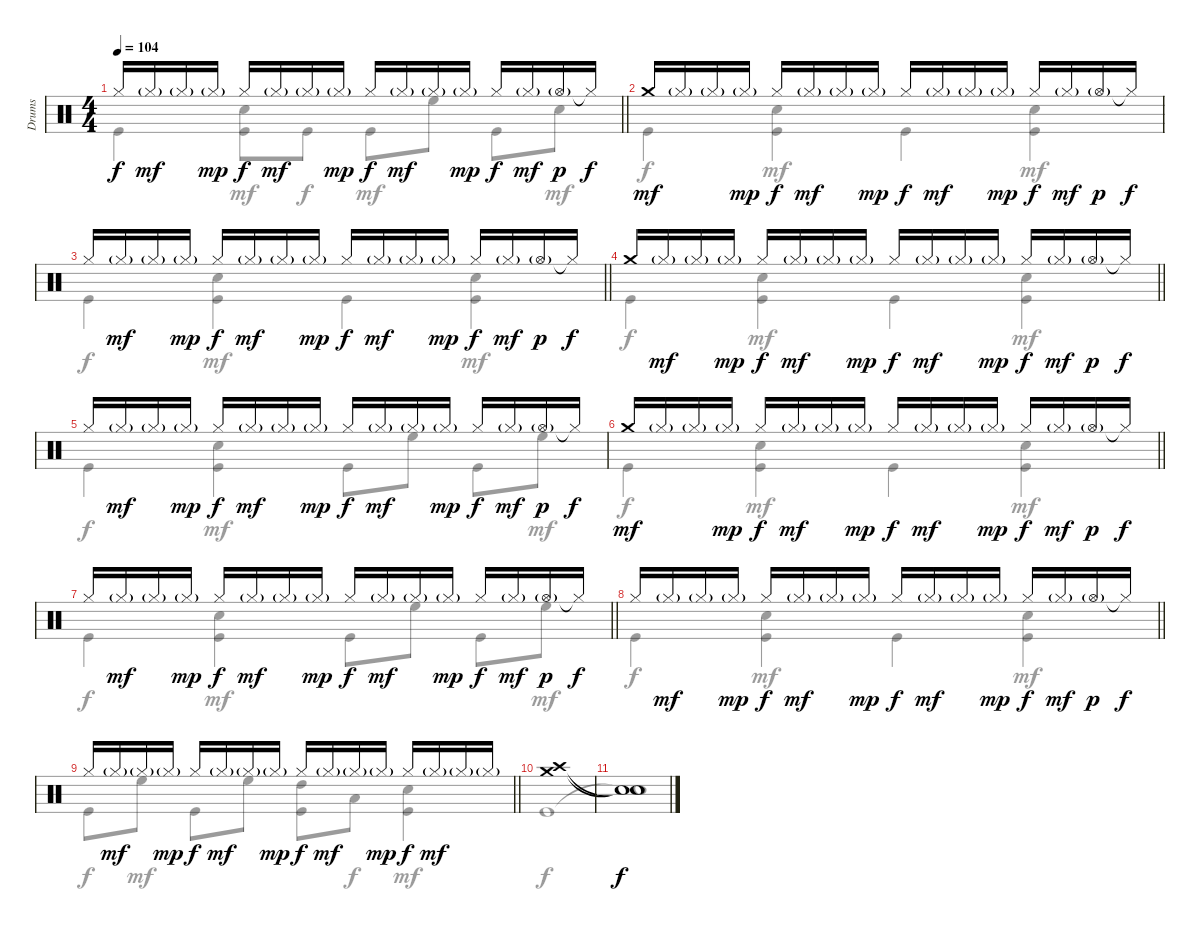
\track ("Drums" "Drums") {instrument percussion}
\staff {score}
\articulation defaults
\voice
\ts (4 4)
\tempo 104
\clef neutral
\barLineRight lightlight
\ks c "Hi-Hat (closed)".16{dy f} "Hi-Hat (closed)"{g}.16{dy mf} "Hi-Hat (closed)"{g}.16 "Hi-Hat (closed)"{g}.16{dy mp} "Hi-Hat (closed)".16{dy f} "Hi-Hat (closed)"{g}.16{dy mf} "Hi-Hat (closed)"{g}.16 "Hi-Hat (closed)"{g}.16{dy mp} "Hi-Hat (closed)".16{dy f} "Hi-Hat (closed)"{g}.16{dy mf} "Hi-Hat (closed)"{g}.16 "Hi-Hat (closed)"{g}.16{dy mp} "Hi-Hat (closed)".16{dy f} "Hi-Hat (closed)"{g}.16{dy mf} "Hi-Hat (open)"{g}.16{dy p} "Hi-Hat (closed)"{t}.16{dy f}
|
\section ("" "")
"Crash medium (hit)".16{dy mf} "Hi-Hat (closed)"{g}.16 "Hi-Hat (closed)"{g}.16 "Hi-Hat (closed)"{g}.16{dy mp} "Hi-Hat (closed)".16{dy f} "Hi-Hat (closed)"{g}.16{dy mf} "Hi-Hat (closed)"{g}.16 "Hi-Hat (closed)"{g}.16{dy mp} "Hi-Hat (closed)".16{dy f} "Hi-Hat (closed)"{g}.16{dy mf} "Hi-Hat (closed)"{g}.16 "Hi-Hat (closed)"{g}.16{dy mp} "Hi-Hat (closed)".16{dy f} "Hi-Hat (closed)"{g}.16{dy mf} "Hi-Hat (open)"{g}.16{dy p} "Hi-Hat (closed)"{t}.16{dy f} |
\barLineRight lightlight "Hi-Hat (closed)".16 "Hi-Hat (closed)"{g}.16{dy mf} "Hi-Hat (closed)"{g}.16 "Hi-Hat (closed)"{g}.16{dy mp} "Hi-Hat (closed)".16{dy f} "Hi-Hat (closed)"{g}.16{dy mf} "Hi-Hat (closed)"{g}.16 "Hi-Hat (closed)"{g}.16{dy mp} "Hi-Hat (closed)".16{dy f} "Hi-Hat (closed)"{g}.16{dy mf} "Hi-Hat (closed)"{g}.16 "Hi-Hat (closed)"{g}.16{dy mp} "Hi-Hat (closed)".16{dy f} "Hi-Hat (closed)"{g}.16{dy mf} "Hi-Hat (open)"{g}.16{dy p} "Hi-Hat (closed)"{t}.16{dy f}
|
\barLineRight lightlight "Crash medium (hit)".16 "Hi-Hat (closed)"{g}.16{dy mf} "Hi-Hat (closed)"{g}.16 "Hi-Hat (closed)"{g}.16{dy mp} "Hi-Hat (closed)".16{dy f} "Hi-Hat (closed)"{g}.16{dy mf} "Hi-Hat (closed)"{g}.16 "Hi-Hat (closed)"{g}.16{dy mp} "Hi-Hat (closed)".16{dy f} "Hi-Hat (closed)"{g}.16{dy mf} "Hi-Hat (closed)"{g}.16 "Hi-Hat (closed)"{g}.16{dy mp} "Hi-Hat (closed)".16{dy f} "Hi-Hat (closed)"{g}.16{dy mf} "Hi-Hat (open)"{g}.16{dy p} "Hi-Hat (closed)"{t}.16{dy f}
|
"Hi-Hat (closed)".16 "Hi-Hat (closed)"{g}.16{dy mf} "Hi-Hat (closed)"{g}.16 "Hi-Hat (closed)"{g}.16{dy mp} "Hi-Hat (closed)".16{dy f} "Hi-Hat (closed)"{g}.16{dy mf} "Hi-Hat (closed)"{g}.16 "Hi-Hat (closed)"{g}.16{dy mp} "Hi-Hat (closed)".16{dy f} "Hi-Hat (closed)"{g}.16{dy mf} "Hi-Hat (closed)"{g}.16 "Hi-Hat (closed)"{g}.16{dy mp} "Hi-Hat (closed)".16{dy f} "Hi-Hat (closed)"{g}.16{dy mf} "Hi-Hat (open)"{g}.16{dy p} "Hi-Hat (closed)"{t}.16{dy f} |
\barLineRight lightlight "Crash medium (hit)".16{dy mf} "Hi-Hat (closed)"{g}.16 "Hi-Hat (closed)"{g}.16 "Hi-Hat (closed)"{g}.16{dy mp} "Hi-Hat (closed)".16{dy f} "Hi-Hat (closed)"{g}.16{dy mf} "Hi-Hat (closed)"{g}.16 "Hi-Hat (closed)"{g}.16{dy mp} "Hi-Hat (closed)".16{dy f} "Hi-Hat (closed)"{g}.16{dy mf} "Hi-Hat (closed)"{g}.16 "Hi-Hat (closed)"{g}.16{dy mp} "Hi-Hat (closed)".16{dy f} "Hi-Hat (closed)"{g}.16{dy mf} "Hi-Hat (open)"{g}.16{dy p} "Hi-Hat (closed)"{t}.16{dy f}
|
\section ("" "")
\barLineRight lightlight "Hi-Hat (closed)".16 "Hi-Hat (closed)"{g}.16{dy mf} "Hi-Hat (closed)"{g}.16 "Hi-Hat (closed)"{g}.16{dy mp} "Hi-Hat (closed)".16{dy f} "Hi-Hat (closed)"{g}.16{dy mf} "Hi-Hat (closed)"{g}.16 "Hi-Hat (closed)"{g}.16{dy mp} "Hi-Hat (closed)".16{dy f} "Hi-Hat (closed)"{g}.16{dy mf} "Hi-Hat (closed)"{g}.16 "Hi-Hat (closed)"{g}.16{dy mp} "Hi-Hat (closed)".16{dy f} "Hi-Hat (closed)"{g}.16{dy mf} "Hi-Hat (open)"{g}.16{dy p} "Hi-Hat (closed)"{t}.16{dy f}
|
\barLineRight lightlight "Hi-Hat (closed)".16 "Hi-Hat (closed)"{g}.16{dy mf} "Hi-Hat (closed)"{g}.16 "Hi-Hat (closed)"{g}.16{dy mp} "Hi-Hat (closed)".16{dy f} "Hi-Hat (closed)"{g}.16{dy mf} "Hi-Hat (closed)"{g}.16 "Hi-Hat (closed)"{g}.16{dy mp} "Hi-Hat (closed)".16{dy f} "Hi-Hat (closed)"{g}.16{dy mf} "Hi-Hat (closed)"{g}.16 "Hi-Hat (closed)"{g}.16{dy mp} "Hi-Hat (closed)".16{dy f} "Hi-Hat (closed)"{g}.16{dy mf} "Hi-Hat (open)"{g}.16{dy p} "Hi-Hat (closed)"{t}.16{dy f}
|
\barLineRight lightlight "Hi-Hat (closed)".16 "Hi-Hat (closed)"{g}.16{dy mf} "Hi-Hat (closed)"{g}.16 "Hi-Hat (closed)"{g}.16{dy mp} "Hi-Hat (closed)".16{dy f} "Hi-Hat (closed)"{g}.16{dy mf} "Hi-Hat (closed)"{g}.16 "Hi-Hat (closed)"{g}.16{dy mp} "Hi-Hat (closed)".16{dy f} "Hi-Hat (closed)"{g}.16{dy mf} "Hi-Hat (closed)"{g}.16 "Hi-Hat (closed)"{g}.16{dy mp} "Hi-Hat (closed)".16{dy f} "Hi-Hat (closed)"{g}.16{dy mf} "Hi-Hat (closed)"{g}.16 "Hi-Hat (closed)"{g}.16
|
\section ("" "")
("Crash high (hit)" "Crash medium (hit)").1 |
("Snare (hit)"{t} "Snare (hit)"{t}).1{dy f volume 0}
\voice
\clef neutral
\ottava regular
\simile none
\barLineRight lightlight
\ks c "Kick (hit)".4{dy f}
("Snare (hit) 2" "Kick (hit)").8{dy mf} "Kick (hit)".8{dy f} "Kick (hit)".8{dy mf} "High Floor Tom (hit)".8 "Kick (hit)".8{dy f} "Snare (hit) 2".8{dy mf} |
"Kick (hit)".4{dy f} ("Snare (hit) 2" "Kick (hit)").4{dy mf} "Kick (hit)".4{dy f} ("Snare (hit) 2" "Kick (hit)").4{dy mf} |
\barLineRight lightlight "Kick (hit)".4{dy f}
("Snare (hit) 2" "Kick (hit)").4{dy mf} "Kick (hit)".4{dy f} ("Snare (hit) 2" "Kick (hit)").4{dy mf} |
\barLineRight lightlight "Kick (hit)".4{dy f}
("Snare (hit) 2" "Kick (hit)").4{dy mf} "Kick (hit)".4{dy f} ("Snare (hit) 2" "Kick (hit)").4{dy mf} |
"Kick (hit)".4{dy f} ("Snare (hit) 2" "Kick (hit)").4{dy mf} "Kick (hit)".8 "High Floor Tom (hit)".8 "Kick (hit)".8{dy f} "High Floor Tom (hit)".8{dy mf} |
\barLineRight lightlight "Kick (hit)".4{dy f}
("Snare (hit) 2" "Kick (hit)").4{dy mf} "Kick (hit)".4{dy f} ("Snare (hit) 2" "Kick (hit)").4{dy mf} |
\barLineRight lightlight "Kick (hit)".4{dy f}
("Snare (hit) 2" "Kick (hit)").4{dy mf} "Kick (hit)".8 "High Floor Tom (hit)".8 "Kick (hit)".8{dy f} "High Floor Tom (hit)".8{dy mf} |
\barLineRight lightlight "Kick (hit)".4{dy f}
("Snare (hit) 2" "Kick (hit)").4{dy mf} "Kick (hit)".4{dy f} ("Snare (hit) 2" "Kick (hit)").4{dy mf} |
\barLineRight lightlight "Kick (hit)".8{dy f} "High Floor Tom (hit)".8{dy mf} "Kick (hit)".8 "High Floor Tom (hit)".8
("High Tom (hit)" "Kick (hit)").8 "Low Tom (hit)".8{dy f} ("Snare (hit) 2" "Kick (hit)").4{dy mf} |
"Kick (hit)".1{dy f} |
"Snare (hit)"{t}.1
